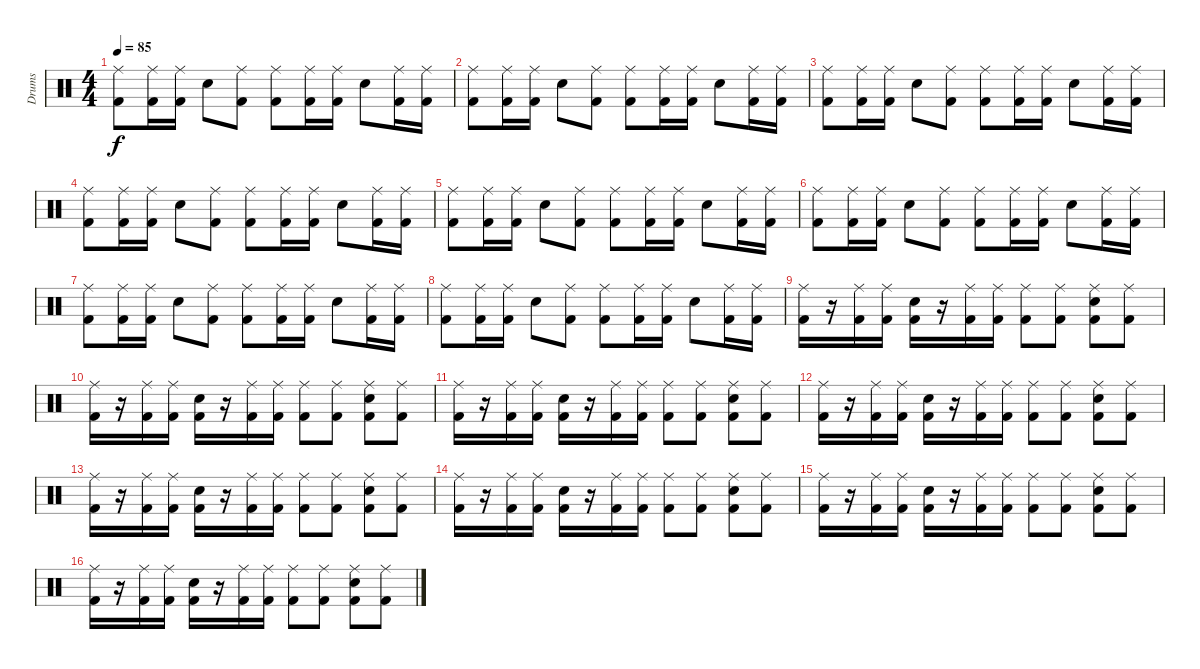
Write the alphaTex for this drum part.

\track ("Drums" "Drums") {instrument percussion}
\staff {score}
\articulation defaults
\ts (4 4)
\tempo 85
\clef neutral
\ks c
("Ride (middle)" "Kick (hit) 2").8{dy f} ("Ride (middle)" "Kick (hit) 2").16 ("Ride (middle)" "Kick (hit) 2").16 "Snare (hit) 2".8 ("Ride (middle)" "Kick (hit) 2").8 ("Ride (middle)" "Kick (hit) 2").8 ("Ride (middle)" "Kick (hit) 2").16 ("Ride (middle)" "Kick (hit) 2").16 "Snare (hit) 2".8 ("Ride (middle)" "Kick (hit) 2").16 ("Ride (middle)" "Kick (hit) 2").16 |
("Ride (middle)" "Kick (hit) 2").8 ("Ride (middle)" "Kick (hit) 2").16 ("Ride (middle)" "Kick (hit) 2").16 "Snare (hit) 2".8 ("Ride (middle)" "Kick (hit) 2").8 ("Ride (middle)" "Kick (hit) 2").8 ("Ride (middle)" "Kick (hit) 2").16 ("Ride (middle)" "Kick (hit) 2").16 "Snare (hit) 2".8 ("Ride (middle)" "Kick (hit) 2").16 ("Ride (middle)" "Kick (hit) 2").16 |
("Ride (middle)" "Kick (hit) 2").8 ("Ride (middle)" "Kick (hit) 2").16 ("Ride (middle)" "Kick (hit) 2").16 "Snare (hit) 2".8 ("Ride (middle)" "Kick (hit) 2").8 ("Ride (middle)" "Kick (hit) 2").8 ("Ride (middle)" "Kick (hit) 2").16 ("Ride (middle)" "Kick (hit) 2").16 "Snare (hit) 2".8 ("Ride (middle)" "Kick (hit) 2").16 ("Ride (middle)" "Kick (hit) 2").16 |
("Ride (middle)" "Kick (hit) 2").8 ("Ride (middle)" "Kick (hit) 2").16 ("Ride (middle)" "Kick (hit) 2").16 "Snare (hit) 2".8 ("Ride (middle)" "Kick (hit) 2").8 ("Ride (middle)" "Kick (hit) 2").8 ("Ride (middle)" "Kick (hit) 2").16 ("Ride (middle)" "Kick (hit) 2").16 "Snare (hit) 2".8 ("Ride (middle)" "Kick (hit) 2").16 ("Ride (middle)" "Kick (hit) 2").16 |
("Ride (middle)" "Kick (hit) 2").8 ("Ride (middle)" "Kick (hit) 2").16 ("Ride (middle)" "Kick (hit) 2").16 "Snare (hit) 2".8 ("Ride (middle)" "Kick (hit) 2").8 ("Ride (middle)" "Kick (hit) 2").8 ("Ride (middle)" "Kick (hit) 2").16 ("Ride (middle)" "Kick (hit) 2").16 "Snare (hit) 2".8 ("Ride (middle)" "Kick (hit) 2").16 ("Ride (middle)" "Kick (hit) 2").16 |
("Ride (middle)" "Kick (hit) 2").8 ("Ride (middle)" "Kick (hit) 2").16 ("Ride (middle)" "Kick (hit) 2").16 "Snare (hit) 2".8 ("Ride (middle)" "Kick (hit) 2").8 ("Ride (middle)" "Kick (hit) 2").8 ("Ride (middle)" "Kick (hit) 2").16 ("Ride (middle)" "Kick (hit) 2").16 "Snare (hit) 2".8 ("Ride (middle)" "Kick (hit) 2").16 ("Ride (middle)" "Kick (hit) 2").16 |
("Ride (middle)" "Kick (hit) 2").8 ("Ride (middle)" "Kick (hit) 2").16 ("Ride (middle)" "Kick (hit) 2").16 "Snare (hit) 2".8 ("Ride (middle)" "Kick (hit) 2").8 ("Ride (middle)" "Kick (hit) 2").8 ("Ride (middle)" "Kick (hit) 2").16 ("Ride (middle)" "Kick (hit) 2").16 "Snare (hit) 2".8 ("Ride (middle)" "Kick (hit) 2").16 ("Ride (middle)" "Kick (hit) 2").16 |
("Ride (middle)" "Kick (hit) 2").8 ("Ride (middle)" "Kick (hit) 2").16 ("Ride (middle)" "Kick (hit) 2").16 "Snare (hit) 2".8 ("Ride (middle)" "Kick (hit) 2").8 ("Ride (middle)" "Kick (hit) 2").8 ("Ride (middle)" "Kick (hit) 2").16 ("Ride (middle)" "Kick (hit) 2").16 "Snare (hit) 2".8 ("Ride (middle)" "Kick (hit) 2").16 ("Ride (middle)" "Kick (hit) 2").16 |
("Ride (middle)" "Kick (hit) 2").16 r.16 ("Ride (middle)" "Kick (hit) 2").16 ("Ride (middle)" "Kick (hit) 2").16 ("Snare (hit) 2" "Kick (hit) 2").16 r.16 ("Ride (middle)" "Kick (hit) 2").16 ("Ride (middle)" "Kick (hit) 2").16 ("Ride (middle)" "Kick (hit) 2").8 ("Ride (middle)" "Kick (hit) 2").8 ("Ride (middle)" "Snare (hit) 2" "Kick (hit) 2").8 ("Ride (middle)" "Kick (hit) 2").8 |
("Ride (middle)" "Kick (hit) 2").16 r.16 ("Ride (middle)" "Kick (hit) 2").16 ("Ride (middle)" "Kick (hit) 2").16 ("Snare (hit) 2" "Kick (hit) 2").16 r.16 ("Ride (middle)" "Kick (hit) 2").16 ("Ride (middle)" "Kick (hit) 2").16 ("Ride (middle)" "Kick (hit) 2").8 ("Ride (middle)" "Kick (hit) 2").8 ("Ride (middle)" "Snare (hit) 2" "Kick (hit) 2").8 ("Ride (middle)" "Kick (hit) 2").8 |
("Ride (middle)" "Kick (hit) 2").16 r.16 ("Ride (middle)" "Kick (hit) 2").16 ("Ride (middle)" "Kick (hit) 2").16 ("Snare (hit) 2" "Kick (hit) 2").16 r.16 ("Ride (middle)" "Kick (hit) 2").16 ("Ride (middle)" "Kick (hit) 2").16 ("Ride (middle)" "Kick (hit) 2").8 ("Ride (middle)" "Kick (hit) 2").8 ("Ride (middle)" "Snare (hit) 2" "Kick (hit) 2").8 ("Ride (middle)" "Kick (hit) 2").8 |
("Ride (middle)" "Kick (hit) 2").16 r.16 ("Ride (middle)" "Kick (hit) 2").16 ("Ride (middle)" "Kick (hit) 2").16 ("Snare (hit) 2" "Kick (hit) 2").16 r.16 ("Ride (middle)" "Kick (hit) 2").16 ("Ride (middle)" "Kick (hit) 2").16 ("Ride (middle)" "Kick (hit) 2").8 ("Ride (middle)" "Kick (hit) 2").8 ("Ride (middle)" "Snare (hit) 2" "Kick (hit) 2").8 ("Ride (middle)" "Kick (hit) 2").8 |
("Ride (middle)" "Kick (hit) 2").16 r.16 ("Ride (middle)" "Kick (hit) 2").16 ("Ride (middle)" "Kick (hit) 2").16 ("Snare (hit) 2" "Kick (hit) 2").16 r.16 ("Ride (middle)" "Kick (hit) 2").16 ("Ride (middle)" "Kick (hit) 2").16 ("Ride (middle)" "Kick (hit) 2").8 ("Ride (middle)" "Kick (hit) 2").8 ("Ride (middle)" "Snare (hit) 2" "Kick (hit) 2").8 ("Ride (middle)" "Kick (hit) 2").8 |
("Ride (middle)" "Kick (hit) 2").16 r.16 ("Ride (middle)" "Kick (hit) 2").16 ("Ride (middle)" "Kick (hit) 2").16 ("Snare (hit) 2" "Kick (hit) 2").16 r.16 ("Ride (middle)" "Kick (hit) 2").16 ("Ride (middle)" "Kick (hit) 2").16 ("Ride (middle)" "Kick (hit) 2").8 ("Ride (middle)" "Kick (hit) 2").8 ("Ride (middle)" "Snare (hit) 2" "Kick (hit) 2").8 ("Ride (middle)" "Kick (hit) 2").8 |
("Ride (middle)" "Kick (hit) 2").16 r.16 ("Ride (middle)" "Kick (hit) 2").16 ("Ride (middle)" "Kick (hit) 2").16 ("Snare (hit) 2" "Kick (hit) 2").16 r.16 ("Ride (middle)" "Kick (hit) 2").16 ("Ride (middle)" "Kick (hit) 2").16 ("Ride (middle)" "Kick (hit) 2").8 ("Ride (middle)" "Kick (hit) 2").8 ("Ride (middle)" "Snare (hit) 2" "Kick (hit) 2").8 ("Ride (middle)" "Kick (hit) 2").8 |
("Ride (middle)" "Kick (hit) 2").16 r.16 ("Ride (middle)" "Kick (hit) 2").16 ("Ride (middle)" "Kick (hit) 2").16 ("Snare (hit) 2" "Kick (hit) 2").16 r.16 ("Ride (middle)" "Kick (hit) 2").16 ("Ride (middle)" "Kick (hit) 2").16 ("Ride (middle)" "Kick (hit) 2").8 ("Ride (middle)" "Kick (hit) 2").8 ("Ride (middle)" "Snare (hit) 2" "Kick (hit) 2").8 ("Ride (middle)" "Kick (hit) 2").8
